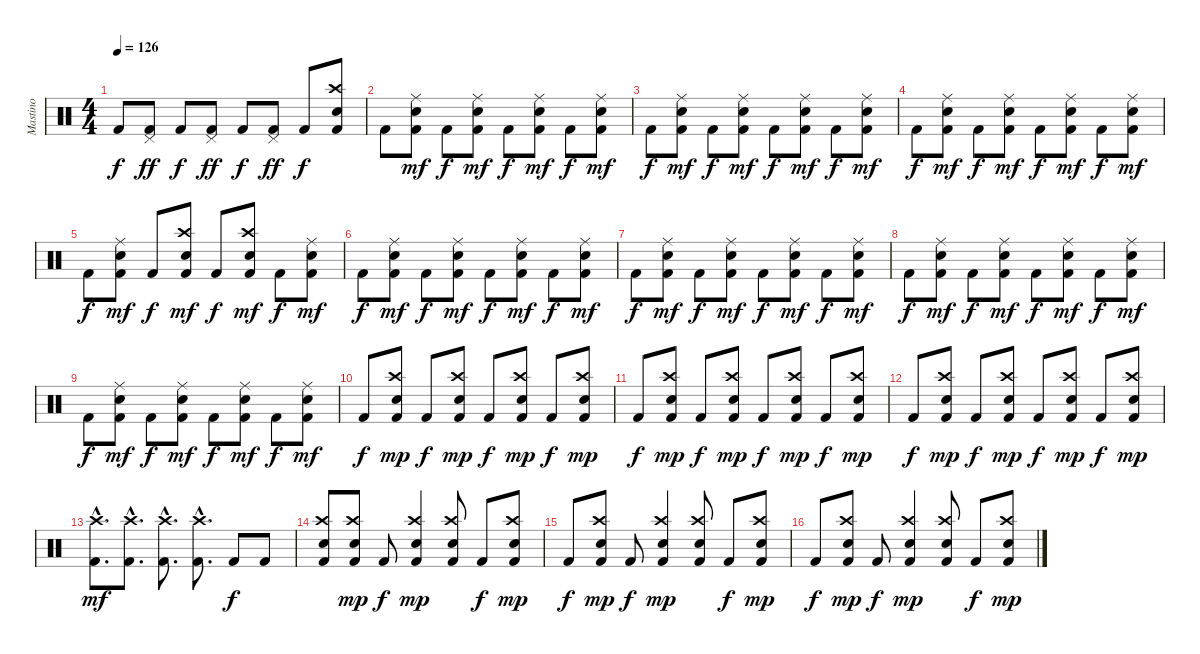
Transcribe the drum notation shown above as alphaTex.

\track ("Mastino" "Mastino") {instrument percussion}
\staff {score}
\articulation defaults
\ts (4 4)
\tempo 126
\clef neutral
\ks c "Kick (hit) 2".8{dy f}
("Pedal Hi-Hat (hit)" "Kick (hit) 2").8{dy ff} "Kick (hit) 2".8{dy f} ("Pedal Hi-Hat (hit)" "Kick (hit) 2").8{dy ff} "Kick (hit) 2".8{dy f} ("Pedal Hi-Hat (hit)" "Kick (hit) 2").8{dy ff} "Kick (hit) 2".8{dy f} ("Crash high (hit)" "Electric Snare (hit)" "Kick (hit) 2").8 |
"Kick (hit) 2".8 ("Ride (middle)" "Electric Snare (hit)" "Kick (hit) 2").8{dy mf} "Kick (hit) 2".8{dy f} ("Ride (middle)" "Electric Snare (hit)" "Kick (hit) 2").8{dy mf} "Kick (hit) 2".8{dy f} ("Ride (middle)" "Electric Snare (hit)" "Kick (hit) 2").8{dy mf} "Kick (hit) 2".8{dy f} ("Ride (middle)" "Electric Snare (hit)" "Kick (hit) 2").8{dy mf} |
"Kick (hit) 2".8{dy f} ("Ride (middle)" "Electric Snare (hit)" "Kick (hit) 2").8{dy mf} "Kick (hit) 2".8{dy f} ("Ride (middle)" "Electric Snare (hit)" "Kick (hit) 2").8{dy mf} "Kick (hit) 2".8{dy f} ("Ride (middle)" "Electric Snare (hit)" "Kick (hit) 2").8{dy mf} "Kick (hit) 2".8{dy f} ("Ride (middle)" "Electric Snare (hit)" "Kick (hit) 2").8{dy mf} |
"Kick (hit) 2".8{dy f} ("Ride (middle)" "Electric Snare (hit)" "Kick (hit) 2").8{dy mf} "Kick (hit) 2".8{dy f} ("Ride (middle)" "Electric Snare (hit)" "Kick (hit) 2").8{dy mf} "Kick (hit) 2".8{dy f} ("Ride (middle)" "Electric Snare (hit)" "Kick (hit) 2").8{dy mf} "Kick (hit) 2".8{dy f} ("Ride (middle)" "Electric Snare (hit)" "Kick (hit) 2").8{dy mf} |
"Kick (hit) 2".8{dy f} ("Ride (middle)" "Electric Snare (hit)" "Kick (hit) 2").8{dy mf} "Kick (hit) 2".8{dy f} ("Crash high (hit)" "Electric Snare (hit)" "Kick (hit) 2").8{dy mf} "Kick (hit) 2".8{dy f} ("Crash high (hit)" "Electric Snare (hit)" "Kick (hit) 2").8{dy mf} "Kick (hit) 2".8{dy f} ("Ride (middle)" "Electric Snare (hit)" "Kick (hit) 2").8{dy mf} |
"Kick (hit) 2".8{dy f} ("Ride (middle)" "Electric Snare (hit)" "Kick (hit) 2").8{dy mf} "Kick (hit) 2".8{dy f} ("Ride (middle)" "Electric Snare (hit)" "Kick (hit) 2").8{dy mf} "Kick (hit) 2".8{dy f} ("Ride (middle)" "Electric Snare (hit)" "Kick (hit) 2").8{dy mf} "Kick (hit) 2".8{dy f} ("Ride (middle)" "Electric Snare (hit)" "Kick (hit) 2").8{dy mf} |
"Kick (hit) 2".8{dy f} ("Ride (middle)" "Electric Snare (hit)" "Kick (hit) 2").8{dy mf} "Kick (hit) 2".8{dy f} ("Ride (middle)" "Electric Snare (hit)" "Kick (hit) 2").8{dy mf} "Kick (hit) 2".8{dy f} ("Ride (middle)" "Electric Snare (hit)" "Kick (hit) 2").8{dy mf} "Kick (hit) 2".8{dy f} ("Ride (middle)" "Electric Snare (hit)" "Kick (hit) 2").8{dy mf} |
"Kick (hit) 2".8{dy f} ("Ride (middle)" "Electric Snare (hit)" "Kick (hit) 2").8{dy mf} "Kick (hit) 2".8{dy f} ("Ride (middle)" "Electric Snare (hit)" "Kick (hit) 2").8{dy mf} "Kick (hit) 2".8{dy f} ("Ride (middle)" "Electric Snare (hit)" "Kick (hit) 2").8{dy mf} "Kick (hit) 2".8{dy f} ("Ride (middle)" "Electric Snare (hit)" "Kick (hit) 2").8{dy mf} |
"Kick (hit) 2".8{dy f} ("Ride (middle)" "Electric Snare (hit)" "Kick (hit) 2").8{dy mf} "Kick (hit) 2".8{dy f} ("Ride (middle)" "Electric Snare (hit)" "Kick (hit) 2").8{dy mf} "Kick (hit) 2".8{dy f} ("Ride (middle)" "Electric Snare (hit)" "Kick (hit) 2").8{dy mf} "Kick (hit) 2".8{dy f} ("Ride (middle)" "Electric Snare (hit)" "Kick (hit) 2").8{dy mf} |
"Kick (hit) 2".8{dy f} ("Crash high (hit)" "Electric Snare (hit)" "Kick (hit) 2").8{dy mp} "Kick (hit) 2".8{dy f} ("Crash high (hit)" "Electric Snare (hit)" "Kick (hit) 2").8{dy mp} "Kick (hit) 2".8{dy f} ("Crash high (hit)" "Electric Snare (hit)" "Kick (hit) 2").8{dy mp} "Kick (hit) 2".8{dy f} ("Crash high (hit)" "Electric Snare (hit)" "Kick (hit) 2").8{dy mp} |
"Kick (hit) 2".8{dy f} ("Crash high (hit)" "Electric Snare (hit)" "Kick (hit) 2").8{dy mp} "Kick (hit) 2".8{dy f} ("Crash high (hit)" "Electric Snare (hit)" "Kick (hit) 2").8{dy mp} "Kick (hit) 2".8{dy f} ("Crash high (hit)" "Electric Snare (hit)" "Kick (hit) 2").8{dy mp} "Kick (hit) 2".8{dy f} ("Crash high (hit)" "Electric Snare (hit)" "Kick (hit) 2").8{dy mp} |
"Kick (hit) 2".8{dy f} ("Crash high (hit)" "Electric Snare (hit)" "Kick (hit) 2").8{dy mp} "Kick (hit) 2".8{dy f} ("Crash high (hit)" "Electric Snare (hit)" "Kick (hit) 2").8{dy mp} "Kick (hit) 2".8{dy f} ("Crash high (hit)" "Electric Snare (hit)" "Kick (hit) 2").8{dy mp} "Kick (hit) 2".8{dy f} ("Crash high (hit)" "Electric Snare (hit)" "Kick (hit) 2").8{dy mp} |
("Crash high (hit)"{hac} "Kick (hit) 2"{hac}).8{d dy mf} ("Crash high (hit)"{hac} "Kick (hit) 2"{hac}).8{d} ("Crash high (hit)"{hac} "Kick (hit) 2"{hac}).8{d} ("Crash high (hit)"{hac} "Kick (hit) 2"{hac}).8{d} "Kick (hit) 2".8{dy f} "Kick (hit) 2".8 |
("Crash high (hit)" "Electric Snare (hit)" "Kick (hit) 2").8 ("Crash high (hit)" "Electric Snare (hit)" "Kick (hit) 2").8{dy mp} "Kick (hit) 2".8{dy f} ("Crash high (hit)" "Electric Snare (hit)" "Kick (hit) 2").4{dy mp} ("Crash high (hit)" "Electric Snare (hit)" "Kick (hit) 2").8 "Kick (hit) 2".8{dy f} ("Crash high (hit)" "Electric Snare (hit)" "Kick (hit) 2").8{dy mp} |
"Kick (hit) 2".8{dy f} ("Crash high (hit)" "Electric Snare (hit)" "Kick (hit) 2").8{dy mp} "Kick (hit) 2".8{dy f} ("Crash high (hit)" "Electric Snare (hit)" "Kick (hit) 2").4{dy mp} ("Crash high (hit)" "Electric Snare (hit)" "Kick (hit) 2").8 "Kick (hit) 2".8{dy f} ("Crash high (hit)" "Electric Snare (hit)" "Kick (hit) 2").8{dy mp} |
"Kick (hit) 2".8{dy f} ("Crash high (hit)" "Electric Snare (hit)" "Kick (hit) 2").8{dy mp} "Kick (hit) 2".8{dy f} ("Crash high (hit)" "Electric Snare (hit)" "Kick (hit) 2").4{dy mp} ("Crash high (hit)" "Electric Snare (hit)" "Kick (hit) 2").8 "Kick (hit) 2".8{dy f} ("Crash high (hit)" "Electric Snare (hit)" "Kick (hit) 2").8{dy mp}
